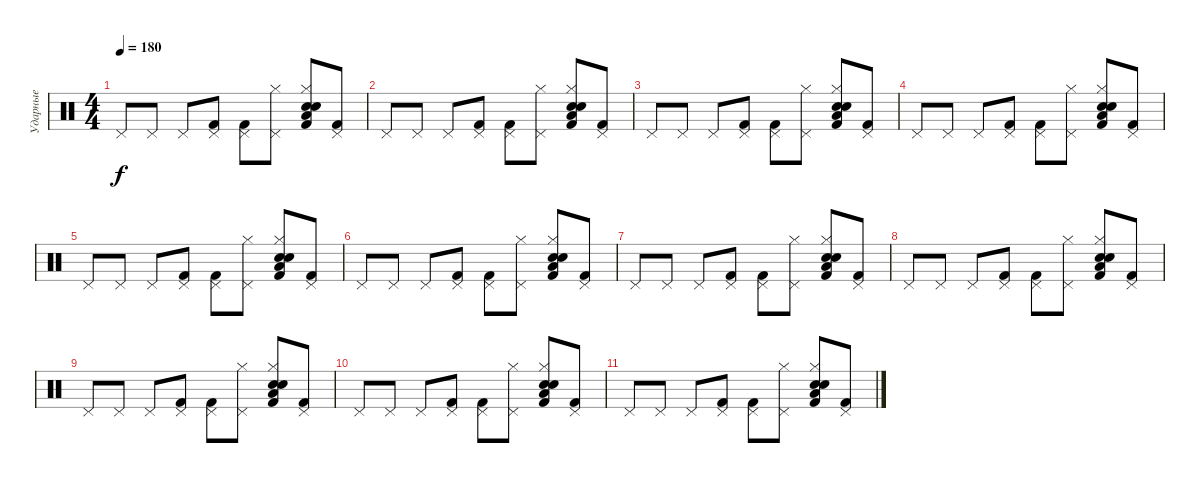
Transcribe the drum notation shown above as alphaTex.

\track ("Ударные" "Ударные") {instrument percussion}
\staff {score}
\articulation defaults
\ts (4 4)
\tempo 180
\clef neutral
\ks c "Pedal Hi-Hat (hit)".8{dy f} "Pedal Hi-Hat (hit)".8 "Pedal Hi-Hat (hit)".8
("Kick (hit) 2" "Pedal Hi-Hat (hit)").8 ("Kick (hit) 2" "Pedal Hi-Hat (hit)").8 ("Hi-Hat (closed)" "Pedal Hi-Hat (hit)").8 ("Hi-Hat (closed)" "Kick (hit) 2" "Snare (hit) 2" "Electric Snare (hit)" "Low Floor Tom (hit)").8 ("Kick (hit) 2" "Pedal Hi-Hat (hit)").8 |
"Pedal Hi-Hat (hit)".8 "Pedal Hi-Hat (hit)".8 "Pedal Hi-Hat (hit)".8 ("Kick (hit) 2" "Pedal Hi-Hat (hit)").8 ("Kick (hit) 2" "Pedal Hi-Hat (hit)").8 ("Hi-Hat (closed)" "Pedal Hi-Hat (hit)").8 ("Hi-Hat (closed)" "Kick (hit) 2" "Snare (hit) 2" "Electric Snare (hit)" "Low Floor Tom (hit)").8 ("Kick (hit) 2" "Pedal Hi-Hat (hit)").8 |
"Pedal Hi-Hat (hit)".8 "Pedal Hi-Hat (hit)".8 "Pedal Hi-Hat (hit)".8 ("Kick (hit) 2" "Pedal Hi-Hat (hit)").8 ("Kick (hit) 2" "Pedal Hi-Hat (hit)").8 ("Hi-Hat (closed)" "Pedal Hi-Hat (hit)").8 ("Hi-Hat (closed)" "Kick (hit) 2" "Snare (hit) 2" "Electric Snare (hit)" "Low Floor Tom (hit)").8 ("Kick (hit) 2" "Pedal Hi-Hat (hit)").8 |
"Pedal Hi-Hat (hit)".8 "Pedal Hi-Hat (hit)".8 "Pedal Hi-Hat (hit)".8 ("Kick (hit) 2" "Pedal Hi-Hat (hit)").8 ("Kick (hit) 2" "Pedal Hi-Hat (hit)").8 ("Hi-Hat (closed)" "Pedal Hi-Hat (hit)").8 ("Hi-Hat (closed)" "Kick (hit) 2" "Snare (hit) 2" "Electric Snare (hit)" "Low Floor Tom (hit)").8 ("Kick (hit) 2" "Pedal Hi-Hat (hit)").8 |
"Pedal Hi-Hat (hit)".8 "Pedal Hi-Hat (hit)".8 "Pedal Hi-Hat (hit)".8 ("Kick (hit) 2" "Pedal Hi-Hat (hit)").8 ("Kick (hit) 2" "Pedal Hi-Hat (hit)").8 ("Hi-Hat (closed)" "Pedal Hi-Hat (hit)").8 ("Hi-Hat (closed)" "Kick (hit) 2" "Snare (hit) 2" "Electric Snare (hit)" "Low Floor Tom (hit)").8 ("Kick (hit) 2" "Pedal Hi-Hat (hit)").8 |
"Pedal Hi-Hat (hit)".8 "Pedal Hi-Hat (hit)".8 "Pedal Hi-Hat (hit)".8 ("Kick (hit) 2" "Pedal Hi-Hat (hit)").8 ("Kick (hit) 2" "Pedal Hi-Hat (hit)").8 ("Hi-Hat (closed)" "Pedal Hi-Hat (hit)").8 ("Hi-Hat (closed)" "Kick (hit) 2" "Snare (hit) 2" "Electric Snare (hit)" "Low Floor Tom (hit)").8 ("Kick (hit) 2" "Pedal Hi-Hat (hit)").8 |
"Pedal Hi-Hat (hit)".8 "Pedal Hi-Hat (hit)".8 "Pedal Hi-Hat (hit)".8 ("Kick (hit) 2" "Pedal Hi-Hat (hit)").8 ("Kick (hit) 2" "Pedal Hi-Hat (hit)").8 ("Hi-Hat (closed)" "Pedal Hi-Hat (hit)").8 ("Hi-Hat (closed)" "Kick (hit) 2" "Snare (hit) 2" "Electric Snare (hit)" "Low Floor Tom (hit)").8 ("Kick (hit) 2" "Pedal Hi-Hat (hit)").8 |
"Pedal Hi-Hat (hit)".8 "Pedal Hi-Hat (hit)".8 "Pedal Hi-Hat (hit)".8 ("Kick (hit) 2" "Pedal Hi-Hat (hit)").8 ("Kick (hit) 2" "Pedal Hi-Hat (hit)").8 ("Hi-Hat (closed)" "Pedal Hi-Hat (hit)").8 ("Hi-Hat (closed)" "Kick (hit) 2" "Snare (hit) 2" "Electric Snare (hit)" "Low Floor Tom (hit)").8 ("Kick (hit) 2" "Pedal Hi-Hat (hit)").8 |
"Pedal Hi-Hat (hit)".8 "Pedal Hi-Hat (hit)".8 "Pedal Hi-Hat (hit)".8 ("Kick (hit) 2" "Pedal Hi-Hat (hit)").8 ("Kick (hit) 2" "Pedal Hi-Hat (hit)").8 ("Hi-Hat (closed)" "Pedal Hi-Hat (hit)").8 ("Hi-Hat (closed)" "Kick (hit) 2" "Snare (hit) 2" "Electric Snare (hit)" "Low Floor Tom (hit)").8 ("Kick (hit) 2" "Pedal Hi-Hat (hit)").8 |
"Pedal Hi-Hat (hit)".8 "Pedal Hi-Hat (hit)".8 "Pedal Hi-Hat (hit)".8 ("Kick (hit) 2" "Pedal Hi-Hat (hit)").8 ("Kick (hit) 2" "Pedal Hi-Hat (hit)").8 ("Hi-Hat (closed)" "Pedal Hi-Hat (hit)").8 ("Hi-Hat (closed)" "Kick (hit) 2" "Snare (hit) 2" "Electric Snare (hit)" "Low Floor Tom (hit)").8 ("Kick (hit) 2" "Pedal Hi-Hat (hit)").8 |
"Pedal Hi-Hat (hit)".8 "Pedal Hi-Hat (hit)".8 "Pedal Hi-Hat (hit)".8 ("Kick (hit) 2" "Pedal Hi-Hat (hit)").8 ("Kick (hit) 2" "Pedal Hi-Hat (hit)").8 ("Hi-Hat (closed)" "Pedal Hi-Hat (hit)").8 ("Hi-Hat (closed)" "Kick (hit) 2" "Snare (hit) 2" "Electric Snare (hit)" "Low Floor Tom (hit)").8 ("Kick (hit) 2" "Pedal Hi-Hat (hit)").8
